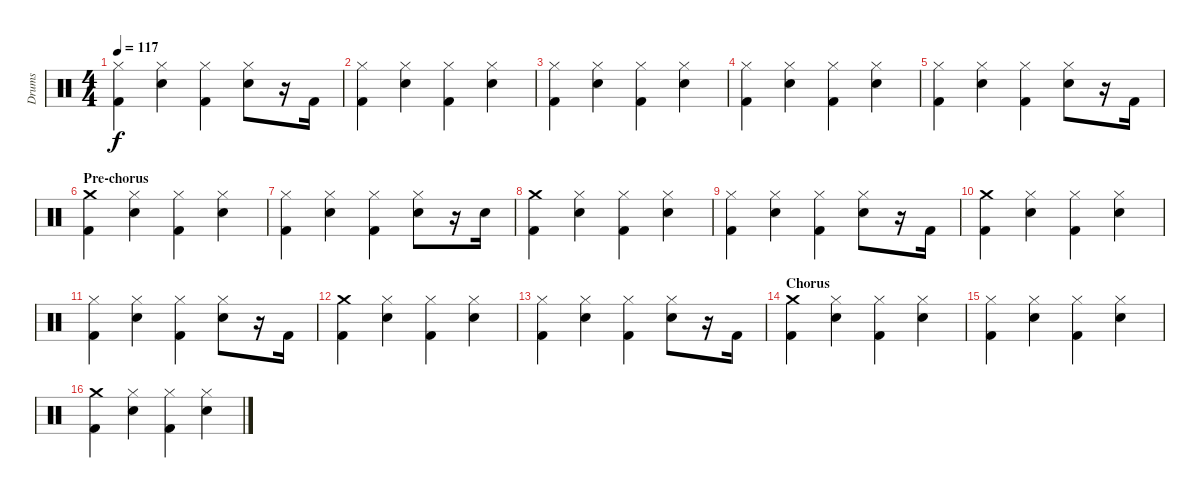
\track ("Drums" "Drums") {instrument percussion}
\staff {score}
\articulation defaults
\ts (4 4)
\tempo 117
\clef neutral
\ks c
("Hi-Hat (closed)" "Kick (hit) 2").4{dy f} ("Hi-Hat (closed)" "Snare (hit) 2").4 ("Hi-Hat (closed)" "Kick (hit) 2").4 ("Hi-Hat (closed)" "Snare (hit) 2").8 r.16 "Kick (hit) 2".16 |
("Hi-Hat (closed)" "Kick (hit) 2").4 ("Hi-Hat (closed)" "Snare (hit) 2").4 ("Hi-Hat (closed)" "Kick (hit) 2").4 ("Hi-Hat (closed)" "Snare (hit) 2").4 |
("Hi-Hat (closed)" "Kick (hit) 2").4 ("Hi-Hat (closed)" "Snare (hit) 2").4 ("Hi-Hat (closed)" "Kick (hit) 2").4 ("Hi-Hat (closed)" "Snare (hit) 2").4 |
("Hi-Hat (closed)" "Kick (hit) 2").4 ("Hi-Hat (closed)" "Snare (hit) 2").4 ("Hi-Hat (closed)" "Kick (hit) 2").4 ("Hi-Hat (closed)" "Snare (hit) 2").4 |
("Hi-Hat (closed)" "Kick (hit) 2").4 ("Hi-Hat (closed)" "Snare (hit) 2").4 ("Hi-Hat (closed)" "Kick (hit) 2").4 ("Hi-Hat (closed)" "Snare (hit) 2").8 r.16 "Kick (hit) 2".16 |
\section ("" "Pre-chorus")
("Crash medium (hit)" "Kick (hit) 2").4 ("Hi-Hat (closed)" "Snare (hit) 2").4 ("Hi-Hat (closed)" "Kick (hit) 2").4 ("Hi-Hat (closed)" "Snare (hit) 2").4 |
("Hi-Hat (closed)" "Kick (hit) 2").4 ("Hi-Hat (closed)" "Snare (hit) 2").4 ("Hi-Hat (closed)" "Kick (hit) 2").4 ("Hi-Hat (closed)" "Snare (hit) 2").8 r.16 "Snare (hit) 2".16 |
("Crash medium (hit)" "Kick (hit) 2").4 ("Hi-Hat (closed)" "Snare (hit) 2").4 ("Hi-Hat (closed)" "Kick (hit) 2").4 ("Hi-Hat (closed)" "Snare (hit) 2").4 |
("Hi-Hat (closed)" "Kick (hit) 2").4 ("Hi-Hat (closed)" "Snare (hit) 2").4 ("Hi-Hat (closed)" "Kick (hit) 2").4 ("Hi-Hat (closed)" "Snare (hit) 2").8 r.16 "Kick (hit) 2".16 |
("Crash medium (hit)" "Kick (hit) 2").4 ("Hi-Hat (closed)" "Snare (hit) 2").4 ("Hi-Hat (closed)" "Kick (hit) 2").4 ("Hi-Hat (closed)" "Snare (hit) 2").4 |
("Hi-Hat (closed)" "Kick (hit) 2").4 ("Hi-Hat (closed)" "Snare (hit) 2").4 ("Hi-Hat (closed)" "Kick (hit) 2").4 ("Hi-Hat (closed)" "Snare (hit) 2").8 r.16 "Kick (hit) 2".16 |
("Crash medium (hit)" "Kick (hit) 2").4 ("Hi-Hat (closed)" "Snare (hit) 2").4 ("Hi-Hat (closed)" "Kick (hit) 2").4 ("Hi-Hat (closed)" "Snare (hit) 2").4 |
("Hi-Hat (closed)" "Kick (hit) 2").4 ("Hi-Hat (closed)" "Snare (hit) 2").4 ("Hi-Hat (closed)" "Kick (hit) 2").4 ("Hi-Hat (closed)" "Snare (hit) 2").8 r.16 "Kick (hit) 2".16 |
\section ("" "Chorus")
("Crash medium (hit)" "Kick (hit) 2").4 ("Hi-Hat (closed)" "Snare (hit) 2").4 ("Hi-Hat (closed)" "Kick (hit) 2").4 ("Hi-Hat (closed)" "Snare (hit) 2").4 |
("Hi-Hat (closed)" "Kick (hit) 2").4 ("Hi-Hat (closed)" "Snare (hit) 2").4 ("Hi-Hat (closed)" "Kick (hit) 2").4 ("Hi-Hat (closed)" "Snare (hit) 2").4 |
("Crash medium (hit)" "Kick (hit) 2").4 ("Hi-Hat (closed)" "Snare (hit) 2").4 ("Hi-Hat (closed)" "Kick (hit) 2").4 ("Hi-Hat (closed)" "Snare (hit) 2").4
